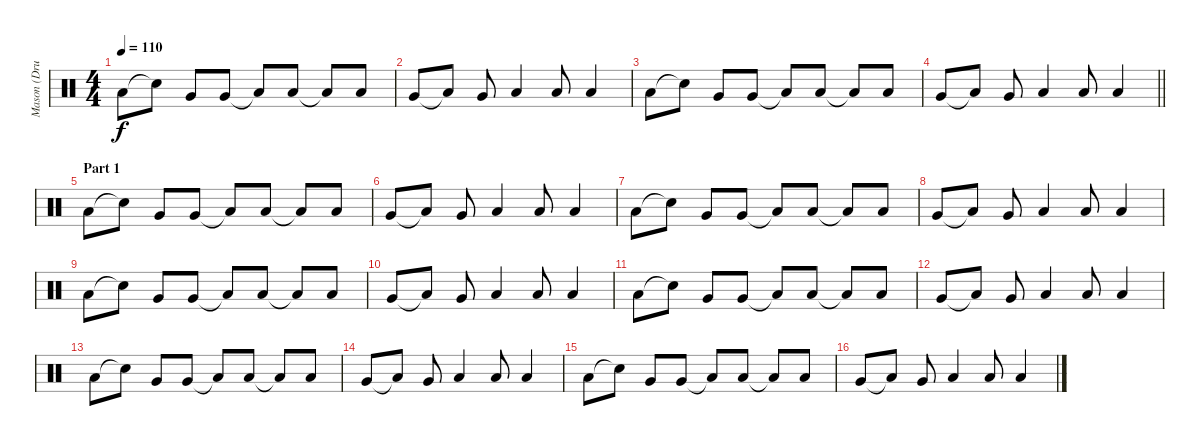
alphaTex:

\track ("Mason (Drums)" "Mason (Dru") {instrument percussion}
\staff {score}
\articulation defaults
\ts (4 4)
\tempo 110
\clef neutral
\ks c "Low Tom (hit)".8{dy f} "Snare (hit)"{t}.8 "Very Low Tom (hit)".8 "Very Low Tom (hit)".8 "Low Floor Tom (hit)"{t}.8 "Low Floor Tom (hit)".8 "Low Tom (hit)"{t}.8 "Low Tom (hit)".8
|
"Very Low Tom (hit)".8 "Low Floor Tom (hit)"{t}.8 "Very Low Tom (hit)".8 "Low Tom (hit)".4 "Low Floor Tom (hit)".8 "Low Floor Tom (hit)".4 |
"Low Tom (hit)".8 "Snare (hit)"{t}.8 "Very Low Tom (hit)".8 "Very Low Tom (hit)".8 "Low Floor Tom (hit)"{t}.8 "Low Floor Tom (hit)".8 "Low Tom (hit)"{t}.8 "Low Tom (hit)".8 |
\barLineRight lightlight "Very Low Tom (hit)".8 "Low Floor Tom (hit)"{t}.8 "Very Low Tom (hit)".8 "Low Tom (hit)".4 "Low Floor Tom (hit)".8 "Low Floor Tom (hit)".4
|
\section ("" "Part 1")
"Low Tom (hit)".8 "Snare (hit)"{t}.8 "Very Low Tom (hit)".8 "Very Low Tom (hit)".8 "Low Floor Tom (hit)"{t}.8 "Low Floor Tom (hit)".8 "Low Tom (hit)"{t}.8 "Low Tom (hit)".8 |
"Very Low Tom (hit)".8 "Low Floor Tom (hit)"{t}.8 "Very Low Tom (hit)".8 "Low Tom (hit)".4 "Low Floor Tom (hit)".8 "Low Floor Tom (hit)".4 |
"Low Tom (hit)".8 "Snare (hit)"{t}.8 "Very Low Tom (hit)".8 "Very Low Tom (hit)".8 "Low Floor Tom (hit)"{t}.8 "Low Floor Tom (hit)".8 "Low Tom (hit)"{t}.8 "Low Tom (hit)".8 |
"Very Low Tom (hit)".8 "Low Floor Tom (hit)"{t}.8 "Very Low Tom (hit)".8 "Low Tom (hit)".4 "Low Floor Tom (hit)".8 "Low Floor Tom (hit)".4 |
"Low Tom (hit)".8 "Snare (hit)"{t}.8 "Very Low Tom (hit)".8 "Very Low Tom (hit)".8 "Low Floor Tom (hit)"{t}.8 "Low Floor Tom (hit)".8 "Low Tom (hit)"{t}.8 "Low Tom (hit)".8 |
"Very Low Tom (hit)".8 "Low Floor Tom (hit)"{t}.8 "Very Low Tom (hit)".8 "Low Tom (hit)".4 "Low Floor Tom (hit)".8 "Low Floor Tom (hit)".4 |
"Low Tom (hit)".8 "Snare (hit)"{t}.8 "Very Low Tom (hit)".8 "Very Low Tom (hit)".8 "Low Floor Tom (hit)"{t}.8 "Low Floor Tom (hit)".8 "Low Tom (hit)"{t}.8 "Low Tom (hit)".8 |
"Very Low Tom (hit)".8 "Low Floor Tom (hit)"{t}.8 "Very Low Tom (hit)".8 "Low Tom (hit)".4 "Low Floor Tom (hit)".8 "Low Floor Tom (hit)".4 |
"Low Tom (hit)".8 "Snare (hit)"{t}.8 "Very Low Tom (hit)".8 "Very Low Tom (hit)".8 "Low Floor Tom (hit)"{t}.8 "Low Floor Tom (hit)".8 "Low Tom (hit)"{t}.8 "Low Tom (hit)".8 |
"Very Low Tom (hit)".8 "Low Floor Tom (hit)"{t}.8 "Very Low Tom (hit)".8 "Low Tom (hit)".4 "Low Floor Tom (hit)".8 "Low Floor Tom (hit)".4 |
"Low Tom (hit)".8 "Snare (hit)"{t}.8 "Very Low Tom (hit)".8 "Very Low Tom (hit)".8 "Low Floor Tom (hit)"{t}.8 "Low Floor Tom (hit)".8 "Low Tom (hit)"{t}.8 "Low Tom (hit)".8 |
"Very Low Tom (hit)".8 "Low Floor Tom (hit)"{t}.8 "Very Low Tom (hit)".8 "Low Tom (hit)".4 "Low Floor Tom (hit)".8 "Low Floor Tom (hit)".4
